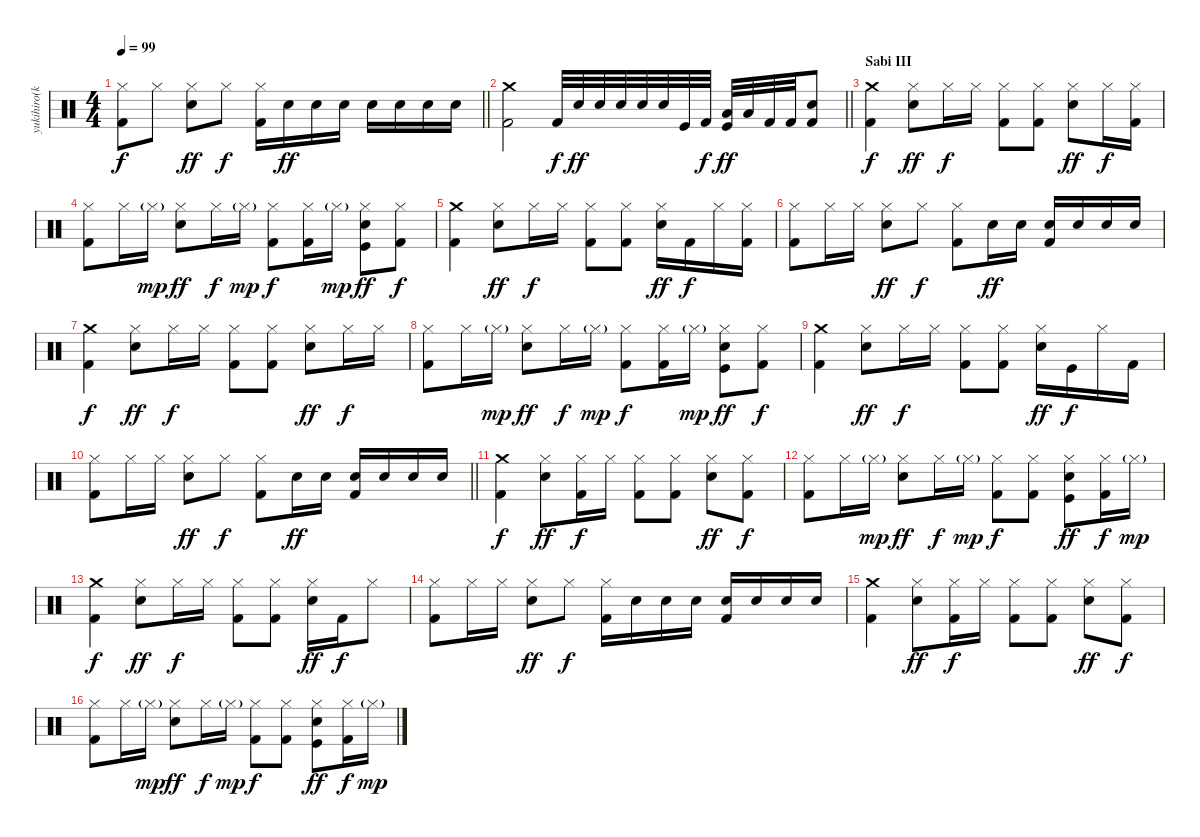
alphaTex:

\track ("yukihiro(kami)" "yukihiro(k") {instrument percussion}
\staff {score}
\articulation defaults
\ts (4 4)
\tempo 99
\clef neutral
\barLineRight lightlight
\ks c
("Hi-Hat (closed)" "Kick (hit) 2").8{dy f} "Hi-Hat (closed)".8 ("Hi-Hat (closed)" "Snare (hit) 2").8{dy ff} "Hi-Hat (closed)".8{dy f} ("Hi-Hat (closed)" "Kick (hit) 2").16 "Snare (hit) 2".16{dy ff} "Snare (hit) 2".16 "Snare (hit) 2".16 "Snare (hit) 2".16 "Snare (hit) 2".16 "Snare (hit) 2".16 "Snare (hit) 2".16 |
\barLineRight lightlight
("Crash medium (hit)" "Kick (hit) 2").2 "Kick (hit) 2".32{dy f} "Snare (hit) 2".32{dy ff} "Snare (hit) 2".32 "Snare (hit) 2".32 "Snare (hit) 2".32 "Snare (hit) 2".32 "Kick (hit)".32 "Kick (hit) 2".32{dy f} ("Low Tom (hit)" "Kick (hit)").32{dy ff} "Low Tom (hit)".32 "Kick (hit) 2".32 "Kick (hit) 2".32 ("Snare (hit) 2" "Kick (hit) 2").8 |
\section ("" "Sabi III")
("Crash medium (hit)" "Kick (hit) 2").4{dy f} ("Hi-Hat (closed)" "Snare (hit) 2").8{dy ff} "Hi-Hat (closed)".16{dy f} "Hi-Hat (closed)".16 ("Hi-Hat (closed)" "Kick (hit) 2").8 ("Hi-Hat (closed)" "Kick (hit) 2").8 ("Hi-Hat (closed)" "Snare (hit) 2").8{dy ff} "Hi-Hat (closed)".16{dy f} ("Hi-Hat (closed)" "Kick (hit) 2").16 |
("Hi-Hat (closed)" "Kick (hit) 2").8 "Hi-Hat (closed)".16 "Hi-Hat (closed)"{g}.16{dy mp} ("Hi-Hat (closed)" "Snare (hit) 2").8{dy ff} "Hi-Hat (closed)".16{dy f} "Hi-Hat (closed)"{g}.16{dy mp} ("Hi-Hat (closed)" "Kick (hit) 2").8{dy f} ("Hi-Hat (closed)" "Kick (hit) 2").16 "Hi-Hat (closed)"{g}.16{dy mp} ("Hi-Hat (closed)" "Snare (hit) 2" "Kick (hit)").8{dy ff} ("Hi-Hat (closed)" "Kick (hit) 2").8{dy f} |
("Crash medium (hit)" "Kick (hit) 2").4 ("Hi-Hat (closed)" "Snare (hit) 2").8{dy ff} "Hi-Hat (closed)".16{dy f} "Hi-Hat (closed)".16 ("Hi-Hat (closed)" "Kick (hit) 2").8 ("Hi-Hat (closed)" "Kick (hit) 2").8 ("Hi-Hat (closed)" "Snare (hit) 2").16{dy ff} "Kick (hit) 2".16{dy f} "Hi-Hat (closed)".16 ("Hi-Hat (closed)" "Kick (hit) 2").16 |
("Hi-Hat (closed)" "Kick (hit) 2").8 "Hi-Hat (closed)".16 "Hi-Hat (closed)".16 ("Hi-Hat (closed)" "Snare (hit) 2").8{dy ff} "Hi-Hat (closed)".8{dy f} ("Hi-Hat (closed)" "Kick (hit) 2").8 "Snare (hit) 2".16{dy ff} "Snare (hit) 2".16 ("Snare (hit) 2" "Kick (hit) 2").16 "Snare (hit) 2".16 "Snare (hit) 2".16 "Snare (hit) 2".16 |
("Crash medium (hit)" "Kick (hit) 2").4{dy f} ("Hi-Hat (closed)" "Snare (hit) 2").8{dy ff} "Hi-Hat (closed)".16{dy f} "Hi-Hat (closed)".16 ("Hi-Hat (closed)" "Kick (hit) 2").8 ("Hi-Hat (closed)" "Kick (hit) 2").8 ("Hi-Hat (closed)" "Snare (hit) 2").8{dy ff} "Hi-Hat (closed)".16{dy f} "Hi-Hat (closed)".16 |
("Hi-Hat (closed)" "Kick (hit) 2").8 "Hi-Hat (closed)".16 "Hi-Hat (closed)"{g}.16{dy mp} ("Hi-Hat (closed)" "Snare (hit) 2").8{dy ff} "Hi-Hat (closed)".16{dy f} "Hi-Hat (closed)"{g}.16{dy mp} ("Hi-Hat (closed)" "Kick (hit) 2").8{dy f} ("Hi-Hat (closed)" "Kick (hit) 2").16 "Hi-Hat (closed)"{g}.16{dy mp} ("Hi-Hat (closed)" "Snare (hit) 2" "Kick (hit)").8{dy ff} ("Hi-Hat (closed)" "Kick (hit) 2").8{dy f} |
("Crash medium (hit)" "Kick (hit) 2").4 ("Hi-Hat (closed)" "Snare (hit) 2").8{dy ff} "Hi-Hat (closed)".16{dy f} "Hi-Hat (closed)".16 ("Hi-Hat (closed)" "Kick (hit) 2").8 ("Hi-Hat (closed)" "Kick (hit) 2").8 ("Hi-Hat (closed)" "Snare (hit) 2").16{dy ff} "Kick (hit)".16{dy f} "Hi-Hat (closed)".16 "Kick (hit) 2".16 |
\barLineRight lightlight
("Hi-Hat (closed)" "Kick (hit) 2").8 "Hi-Hat (closed)".16 "Hi-Hat (closed)".16 ("Hi-Hat (closed)" "Snare (hit) 2").8{dy ff} "Hi-Hat (closed)".8{dy f} ("Hi-Hat (closed)" "Kick (hit) 2").8 "Snare (hit) 2".16{dy ff} "Snare (hit) 2".16 ("Snare (hit) 2" "Kick (hit) 2").16 "Snare (hit) 2".16 "Snare (hit) 2".16 "Snare (hit) 2".16 |
("Crash medium (hit)" "Kick (hit) 2").4{dy f} ("Hi-Hat (closed)" "Snare (hit) 2").8{dy ff} ("Hi-Hat (closed)" "Kick (hit) 2").16{dy f} "Hi-Hat (closed)".16 ("Hi-Hat (closed)" "Kick (hit) 2").8 ("Hi-Hat (closed)" "Kick (hit) 2").8 ("Hi-Hat (closed)" "Snare (hit) 2").8{dy ff} ("Hi-Hat (closed)" "Kick (hit) 2").8{dy f} |
("Hi-Hat (closed)" "Kick (hit) 2").8 "Hi-Hat (closed)".16 "Hi-Hat (closed)"{g}.16{dy mp} ("Hi-Hat (closed)" "Snare (hit) 2").8{dy ff} "Hi-Hat (closed)".16{dy f} "Hi-Hat (closed)"{g}.16{dy mp} ("Hi-Hat (closed)" "Kick (hit) 2").8{dy f} ("Hi-Hat (closed)" "Kick (hit) 2").8 ("Hi-Hat (closed)" "Snare (hit) 2" "Kick (hit)").8{dy ff} ("Hi-Hat (closed)" "Kick (hit) 2").16{dy f} "Hi-Hat (closed)"{g}.16{dy mp} |
("Crash medium (hit)" "Kick (hit) 2").4{dy f} ("Hi-Hat (closed)" "Snare (hit) 2").8{dy ff} "Hi-Hat (closed)".16{dy f} "Hi-Hat (closed)".16 ("Hi-Hat (closed)" "Kick (hit) 2").8 ("Hi-Hat (closed)" "Kick (hit) 2").8 ("Hi-Hat (closed)" "Snare (hit) 2").16{dy ff} "Kick (hit) 2".16{dy f} "Hi-Hat (closed)".8 |
("Hi-Hat (closed)" "Kick (hit) 2").8 "Hi-Hat (closed)".16 "Hi-Hat (closed)".16 ("Hi-Hat (closed)" "Snare (hit) 2").8{dy ff} "Hi-Hat (closed)".8{dy f} ("Hi-Hat (closed)" "Kick (hit) 2").16 "Snare (hit) 2".16 "Snare (hit) 2".16 "Snare (hit) 2".16 ("Snare (hit) 2" "Kick (hit) 2").16 "Snare (hit) 2".16 "Snare (hit) 2".16 "Snare (hit) 2".16 |
("Crash medium (hit)" "Kick (hit) 2").4 ("Hi-Hat (closed)" "Snare (hit) 2").8{dy ff} ("Hi-Hat (closed)" "Kick (hit) 2").16{dy f} "Hi-Hat (closed)".16 ("Hi-Hat (closed)" "Kick (hit) 2").8 ("Hi-Hat (closed)" "Kick (hit) 2").8 ("Hi-Hat (closed)" "Snare (hit) 2").8{dy ff} ("Hi-Hat (closed)" "Kick (hit) 2").8{dy f} |
("Hi-Hat (closed)" "Kick (hit) 2").8 "Hi-Hat (closed)".16 "Hi-Hat (closed)"{g}.16{dy mp} ("Hi-Hat (closed)" "Snare (hit) 2").8{dy ff} "Hi-Hat (closed)".16{dy f} "Hi-Hat (closed)"{g}.16{dy mp} ("Hi-Hat (closed)" "Kick (hit) 2").8{dy f} ("Hi-Hat (closed)" "Kick (hit) 2").8 ("Hi-Hat (closed)" "Snare (hit) 2" "Kick (hit)").8{dy ff} ("Hi-Hat (closed)" "Kick (hit) 2").16{dy f} "Hi-Hat (closed)"{g}.16{dy mp}
